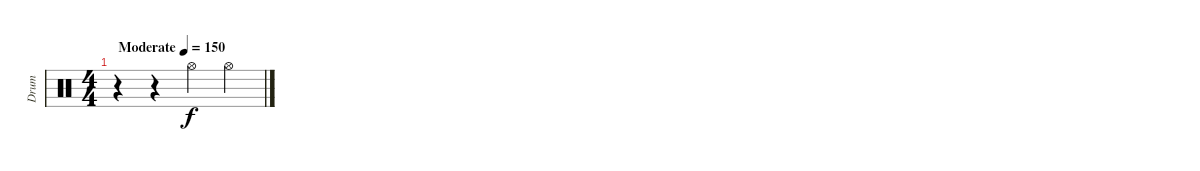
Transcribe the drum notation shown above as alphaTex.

\track ("Drum" "Drum") {instrument percussion}
\staff {score}
\articulation defaults
\ts (4 4)
\tempo (150 "Moderate")
\clef neutral
\ks c
r.4{dy f} r.4 "Hi-Hat (open)".4 "Hi-Hat (open)".4
